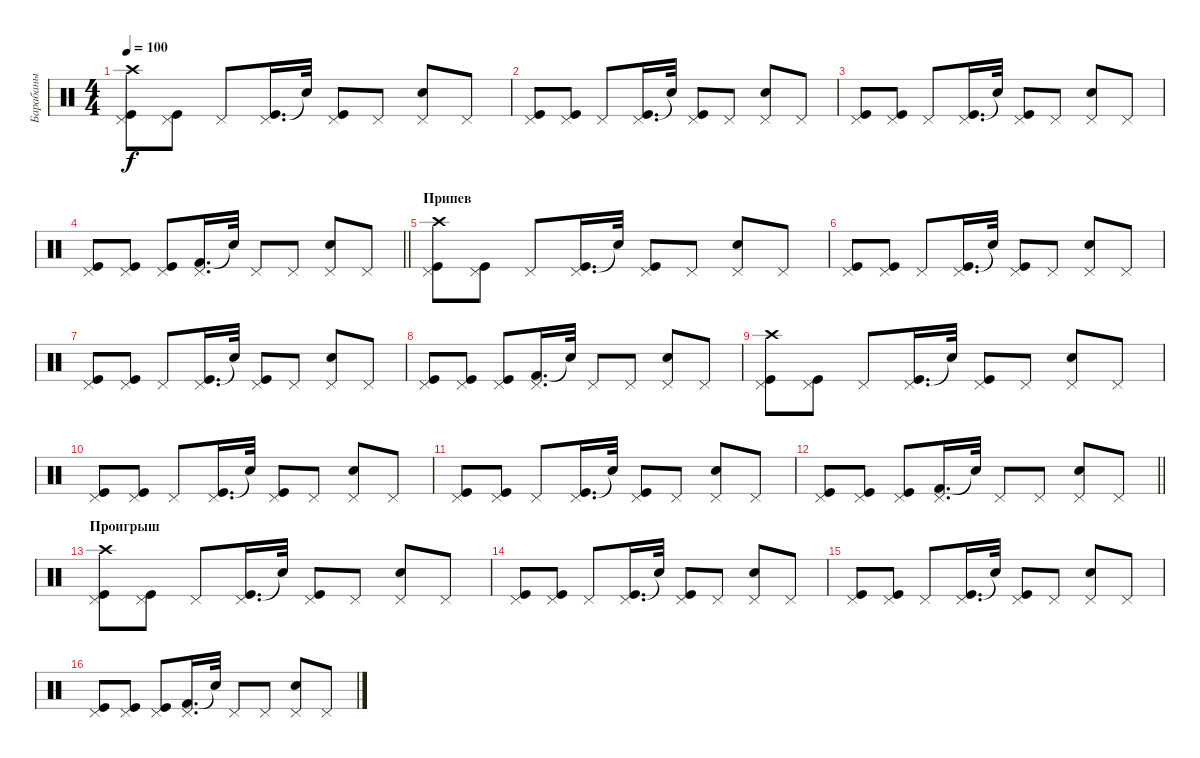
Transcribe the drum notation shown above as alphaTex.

\track ("Барабаны" "Барабаны") {instrument percussion}
\staff {score}
\articulation defaults
\ts (4 4)
\tempo 100
\clef neutral
\ks c
("Crash high (hit)" "Kick (hit)" "Pedal Hi-Hat (hit)").8{dy f} ("Kick (hit)" "Pedal Hi-Hat (hit)").8 "Pedal Hi-Hat (hit)".8 ("Kick (hit)" "Pedal Hi-Hat (hit)").16{d} "Snare (hit)"{t}.32 ("Kick (hit)" "Pedal Hi-Hat (hit)").8 "Pedal Hi-Hat (hit)".8 ("Snare (hit) 2" "Pedal Hi-Hat (hit)").8 "Pedal Hi-Hat (hit)".8 |
("Kick (hit)" "Pedal Hi-Hat (hit)").8 ("Kick (hit)" "Pedal Hi-Hat (hit)").8 "Pedal Hi-Hat (hit)".8 ("Kick (hit)" "Pedal Hi-Hat (hit)").16{d} "Snare (hit)"{t}.32 ("Kick (hit)" "Pedal Hi-Hat (hit)").8 "Pedal Hi-Hat (hit)".8 ("Snare (hit) 2" "Pedal Hi-Hat (hit)").8 "Pedal Hi-Hat (hit)".8 |
("Kick (hit)" "Pedal Hi-Hat (hit)").8 ("Kick (hit)" "Pedal Hi-Hat (hit)").8 "Pedal Hi-Hat (hit)".8 ("Kick (hit)" "Pedal Hi-Hat (hit)").16{d} "Snare (hit)"{t}.32 ("Kick (hit)" "Pedal Hi-Hat (hit)").8 "Pedal Hi-Hat (hit)".8 ("Snare (hit) 2" "Pedal Hi-Hat (hit)").8 "Pedal Hi-Hat (hit)".8 |
\barLineRight lightlight
("Kick (hit)" "Pedal Hi-Hat (hit)").8 ("Kick (hit)" "Pedal Hi-Hat (hit)").8 ("Kick (hit)" "Pedal Hi-Hat (hit)").8 ("Kick (hit) 2" "Pedal Hi-Hat (hit)").16{d} "Snare (hit)"{t}.32 "Pedal Hi-Hat (hit)".8 "Pedal Hi-Hat (hit)".8 ("Snare (hit) 2" "Pedal Hi-Hat (hit)").8 "Pedal Hi-Hat (hit)".8 |
\section ("" "Припев")
("Crash high (hit)" "Kick (hit)" "Pedal Hi-Hat (hit)").8 ("Kick (hit)" "Pedal Hi-Hat (hit)").8 "Pedal Hi-Hat (hit)".8 ("Kick (hit)" "Pedal Hi-Hat (hit)").16{d} "Snare (hit)"{t}.32 ("Kick (hit)" "Pedal Hi-Hat (hit)").8 "Pedal Hi-Hat (hit)".8 ("Snare (hit) 2" "Pedal Hi-Hat (hit)").8 "Pedal Hi-Hat (hit)".8 |
("Kick (hit)" "Pedal Hi-Hat (hit)").8 ("Kick (hit)" "Pedal Hi-Hat (hit)").8 "Pedal Hi-Hat (hit)".8 ("Kick (hit)" "Pedal Hi-Hat (hit)").16{d} "Snare (hit)"{t}.32 ("Kick (hit)" "Pedal Hi-Hat (hit)").8 "Pedal Hi-Hat (hit)".8 ("Snare (hit) 2" "Pedal Hi-Hat (hit)").8 "Pedal Hi-Hat (hit)".8 |
("Kick (hit)" "Pedal Hi-Hat (hit)").8 ("Kick (hit)" "Pedal Hi-Hat (hit)").8 "Pedal Hi-Hat (hit)".8 ("Kick (hit)" "Pedal Hi-Hat (hit)").16{d} "Snare (hit)"{t}.32 ("Kick (hit)" "Pedal Hi-Hat (hit)").8 "Pedal Hi-Hat (hit)".8 ("Snare (hit) 2" "Pedal Hi-Hat (hit)").8 "Pedal Hi-Hat (hit)".8 |
("Kick (hit)" "Pedal Hi-Hat (hit)").8 ("Kick (hit)" "Pedal Hi-Hat (hit)").8 ("Kick (hit)" "Pedal Hi-Hat (hit)").8 ("Kick (hit) 2" "Pedal Hi-Hat (hit)").16{d} "Snare (hit)"{t}.32 "Pedal Hi-Hat (hit)".8 "Pedal Hi-Hat (hit)".8 ("Snare (hit) 2" "Pedal Hi-Hat (hit)").8 "Pedal Hi-Hat (hit)".8 |
("Crash high (hit)" "Kick (hit)" "Pedal Hi-Hat (hit)").8 ("Kick (hit)" "Pedal Hi-Hat (hit)").8 "Pedal Hi-Hat (hit)".8 ("Kick (hit)" "Pedal Hi-Hat (hit)").16{d} "Snare (hit)"{t}.32 ("Kick (hit)" "Pedal Hi-Hat (hit)").8 "Pedal Hi-Hat (hit)".8 ("Snare (hit) 2" "Pedal Hi-Hat (hit)").8 "Pedal Hi-Hat (hit)".8 |
("Kick (hit)" "Pedal Hi-Hat (hit)").8 ("Kick (hit)" "Pedal Hi-Hat (hit)").8 "Pedal Hi-Hat (hit)".8 ("Kick (hit)" "Pedal Hi-Hat (hit)").16{d} "Snare (hit)"{t}.32 ("Kick (hit)" "Pedal Hi-Hat (hit)").8 "Pedal Hi-Hat (hit)".8 ("Snare (hit) 2" "Pedal Hi-Hat (hit)").8 "Pedal Hi-Hat (hit)".8 |
("Kick (hit)" "Pedal Hi-Hat (hit)").8 ("Kick (hit)" "Pedal Hi-Hat (hit)").8 "Pedal Hi-Hat (hit)".8 ("Kick (hit)" "Pedal Hi-Hat (hit)").16{d} "Snare (hit)"{t}.32 ("Kick (hit)" "Pedal Hi-Hat (hit)").8 "Pedal Hi-Hat (hit)".8 ("Snare (hit) 2" "Pedal Hi-Hat (hit)").8 "Pedal Hi-Hat (hit)".8 |
\barLineRight lightlight
("Kick (hit)" "Pedal Hi-Hat (hit)").8 ("Kick (hit)" "Pedal Hi-Hat (hit)").8 ("Kick (hit)" "Pedal Hi-Hat (hit)").8 ("Kick (hit) 2" "Pedal Hi-Hat (hit)").16{d} "Snare (hit)"{t}.32 "Pedal Hi-Hat (hit)".8 "Pedal Hi-Hat (hit)".8 ("Snare (hit) 2" "Pedal Hi-Hat (hit)").8 "Pedal Hi-Hat (hit)".8 |
\section ("" "Проигрыш")
("Crash high (hit)" "Kick (hit)" "Pedal Hi-Hat (hit)").8 ("Kick (hit)" "Pedal Hi-Hat (hit)").8 "Pedal Hi-Hat (hit)".8 ("Kick (hit)" "Pedal Hi-Hat (hit)").16{d} "Snare (hit)"{t}.32 ("Kick (hit)" "Pedal Hi-Hat (hit)").8 "Pedal Hi-Hat (hit)".8 ("Snare (hit) 2" "Pedal Hi-Hat (hit)").8 "Pedal Hi-Hat (hit)".8 |
("Kick (hit)" "Pedal Hi-Hat (hit)").8 ("Kick (hit)" "Pedal Hi-Hat (hit)").8 "Pedal Hi-Hat (hit)".8 ("Kick (hit)" "Pedal Hi-Hat (hit)").16{d} "Snare (hit)"{t}.32 ("Kick (hit)" "Pedal Hi-Hat (hit)").8 "Pedal Hi-Hat (hit)".8 ("Snare (hit) 2" "Pedal Hi-Hat (hit)").8 "Pedal Hi-Hat (hit)".8 |
("Kick (hit)" "Pedal Hi-Hat (hit)").8 ("Kick (hit)" "Pedal Hi-Hat (hit)").8 "Pedal Hi-Hat (hit)".8 ("Kick (hit)" "Pedal Hi-Hat (hit)").16{d} "Snare (hit)"{t}.32 ("Kick (hit)" "Pedal Hi-Hat (hit)").8 "Pedal Hi-Hat (hit)".8 ("Snare (hit) 2" "Pedal Hi-Hat (hit)").8 "Pedal Hi-Hat (hit)".8 |
("Kick (hit)" "Pedal Hi-Hat (hit)").8 ("Kick (hit)" "Pedal Hi-Hat (hit)").8 ("Kick (hit)" "Pedal Hi-Hat (hit)").8 ("Kick (hit) 2" "Pedal Hi-Hat (hit)").16{d} "Snare (hit)"{t}.32 "Pedal Hi-Hat (hit)".8 "Pedal Hi-Hat (hit)".8 ("Snare (hit) 2" "Pedal Hi-Hat (hit)").8 "Pedal Hi-Hat (hit)".8
